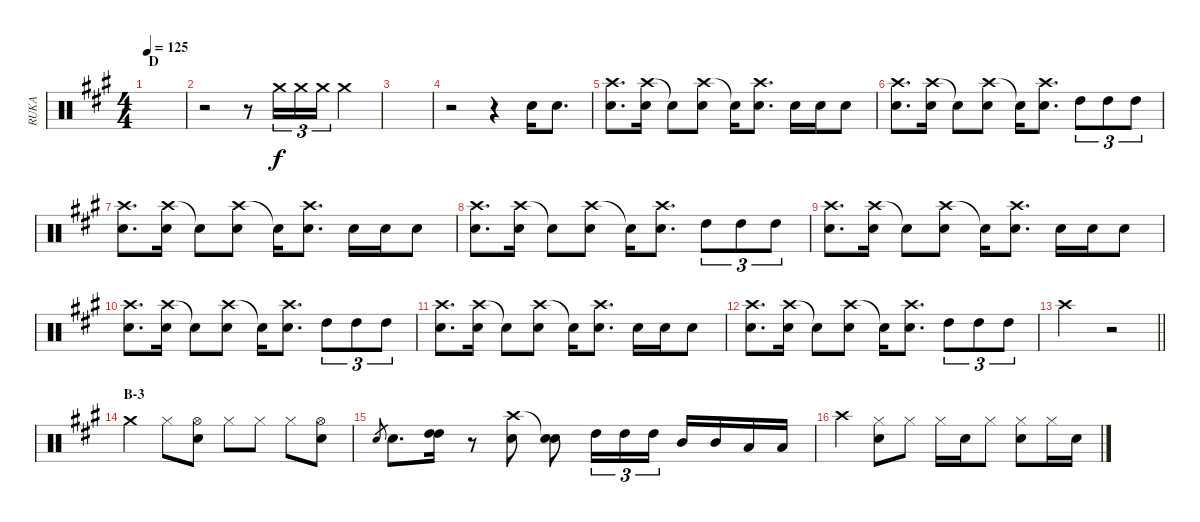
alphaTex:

\track ("RUKA" "RUKA") {instrument percussion}
\staff {score}
\articulation defaults
\ts (4 4)
\section ("" "D")
\tempo 125
\clef neutral
\ks a
|
r.2 r.8 "Crash medium (hit)".16{tu (3 2)} "Crash medium (hit)".16{tu (3 2)} "Crash medium (hit)".16{tu (3 2)} "Crash medium (hit)".4 |
|
r.2 r.4 "Snare (hit) 2".16 "Snare (hit) 2".8{d} |
("Crash high (hit)" "Snare (hit) 2").8{d} ("Crash high (hit)" "Snare (hit) 2").16 "Snare (hit)"{t}.8 ("Crash high (hit)" "Snare (hit) 2").8 "Snare (hit)"{t}.16 ("Crash high (hit)" "Snare (hit) 2").8{d} "Snare (hit) 2".16 "Snare (hit) 2".16 "Snare (hit) 2".8 |
("Crash high (hit)" "Snare (hit) 2").8{d} ("Crash high (hit)" "Snare (hit) 2").16 "Snare (hit)"{t}.8 ("Crash high (hit)" "Snare (hit) 2").8 "Snare (hit)"{t}.16 ("Crash high (hit)" "Snare (hit) 2").8{d} "High Tom (hit)".8{tu (3 2)} "High Tom (hit)".8{tu (3 2)} "High Tom (hit)".8{tu (3 2)} |
("Crash high (hit)" "Snare (hit) 2").8{d} ("Crash high (hit)" "Snare (hit) 2").16 "Snare (hit)"{t}.8 ("Crash high (hit)" "Snare (hit) 2").8 "Snare (hit)"{t}.16 ("Crash high (hit)" "Snare (hit) 2").8{d} "Snare (hit) 2".16 "Snare (hit) 2".16 "Snare (hit) 2".8 |
("Crash high (hit)" "Snare (hit) 2").8{d} ("Crash high (hit)" "Snare (hit) 2").16 "Snare (hit)"{t}.8 ("Crash high (hit)" "Snare (hit) 2").8 "Snare (hit)"{t}.16 ("Crash high (hit)" "Snare (hit) 2").8{d} "High Tom (hit)".8{tu (3 2)} "High Tom (hit)".8{tu (3 2)} "High Tom (hit)".8{tu (3 2)} |
("Crash high (hit)" "Snare (hit) 2").8{d} ("Crash high (hit)" "Snare (hit) 2").16 "Snare (hit)"{t}.8 ("Crash high (hit)" "Snare (hit) 2").8 "Snare (hit)"{t}.16 ("Crash high (hit)" "Snare (hit) 2").8{d} "Snare (hit) 2".16 "Snare (hit) 2".16 "Snare (hit) 2".8 |
("Crash high (hit)" "Snare (hit) 2").8{d} ("Crash high (hit)" "Snare (hit) 2").16 "Snare (hit)"{t}.8 ("Crash high (hit)" "Snare (hit) 2").8 "Snare (hit)"{t}.16 ("Crash high (hit)" "Snare (hit) 2").8{d} "High Tom (hit)".8{tu (3 2)} "High Tom (hit)".8{tu (3 2)} "High Tom (hit)".8{tu (3 2)} |
("Crash high (hit)" "Snare (hit) 2").8{d} ("Crash high (hit)" "Snare (hit) 2").16 "Snare (hit)"{t}.8 ("Crash high (hit)" "Snare (hit) 2").8 "Snare (hit)"{t}.16 ("Crash high (hit)" "Snare (hit) 2").8{d} "Snare (hit) 2".16 "Snare (hit) 2".16 "Snare (hit) 2".8 |
("Crash high (hit)" "Snare (hit) 2").8{d} ("Crash high (hit)" "Snare (hit) 2").16 "Snare (hit)"{t}.8 ("Crash high (hit)" "Snare (hit) 2").8 "Snare (hit)"{t}.16 ("Crash high (hit)" "Snare (hit) 2").8{d} "High Tom (hit)".8{tu (3 2)} "High Tom (hit)".8{tu (3 2)} "High Tom (hit)".8{tu (3 2)} |
\barLineRight lightlight "Crash high (hit)".2
r.2 |
\section ("" "B-3")
"Crash medium (hit)".4 "Hi-Hat (closed)".8 ("Hi-Hat (open)" "Snare (hit) 2").8 "Hi-Hat (closed)".8 "Hi-Hat (closed)".8 "Hi-Hat (closed)".8 ("Hi-Hat (open)" "Snare (hit) 2").8 |
"Snare (hit) 2".8{gr} "Snare (hit) 2".8{d} ("High Tom (hit)" "High Tom (hit)").16 r.8 ("Crash high (hit)" "Snare (hit) 2").8 ("Snare (hit)"{t} "Snare (hit) 2").8 "High Tom (hit)".16{tu (3 2)} "High Tom (hit)".16{tu (3 2)} "High Tom (hit)".16{tu (3 2)} "Mid Tom (hit)".16 "Mid Tom (hit)".16 "Low Tom (hit)".16 "Low Tom (hit)".16 |
"Crash high (hit)".4 ("Hi-Hat (closed)" "Snare (hit) 2").8 "Hi-Hat (closed)".8 "Hi-Hat (closed)".16 "Snare (hit) 2".16 "Hi-Hat (closed)".8 ("Hi-Hat (closed)" "Snare (hit) 2").8 "Hi-Hat (closed)".16 "Snare (hit) 2".16
